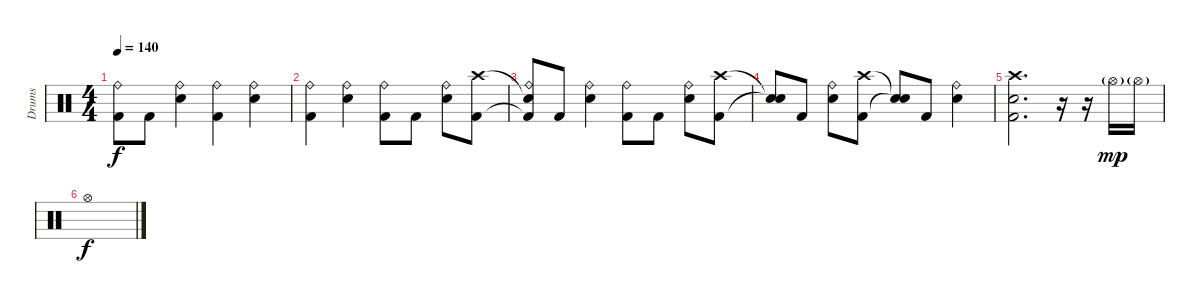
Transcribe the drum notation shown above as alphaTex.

\track ("Drums" "Drums") {instrument percussion}
\staff {score}
\articulation defaults
\ts (4 4)
\tempo 140
\clef neutral
\ks c
("Kick (hit) 2"{t} "Ride (bell)"{t}).8{dy f} "Kick (hit) 2".8 ("Electric Snare (hit)" "Ride (bell)").4 ("Kick (hit) 2" "Ride (bell)").4 ("Electric Snare (hit)" "Ride (bell)").4 |
("Kick (hit) 2" "Ride (bell)").4 ("Electric Snare (hit)" "Ride (bell)").4 ("Kick (hit) 2" "Ride (bell)").8 "Kick (hit) 2".8 ("Electric Snare (hit)" "Ride (bell)").8 ("Kick (hit) 2" "Crash high (hit)").8 |
("Kick (hit) 2"{t} "Snare (hit)"{t} "Ride (bell)").8 "Kick (hit) 2".8 ("Electric Snare (hit)" "Ride (bell)").4 ("Kick (hit) 2" "Ride (bell)").8 "Kick (hit) 2".8 ("Electric Snare (hit)" "Ride (bell)").8 ("Kick (hit) 2" "Crash high (hit)").8 |
("Snare (hit)"{t} "Snare (hit)"{t}).8 "Kick (hit) 2".8 ("Electric Snare (hit)" "Ride (bell)").8 ("Kick (hit) 2" "Crash high (hit)").8 ("Snare (hit)"{t} "Snare (hit)"{t}).8 "Kick (hit) 2".8 ("Electric Snare (hit)" "Ride (bell)").4 |
("Kick (hit) 2" "Electric Snare (hit)" "Crash high (hit)").2{d} r.16 r.16 "Hi-Hat (open)"{g}.16{dy mp} "Hi-Hat (open)"{g}.16 |
"Hi-Hat (open)".1{dy f}
